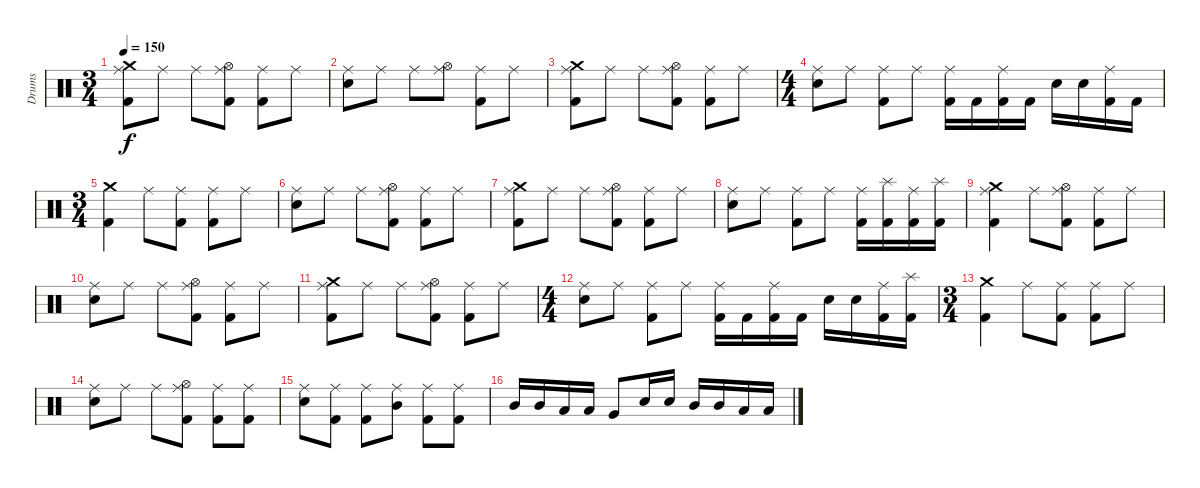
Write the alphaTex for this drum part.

\track ("Drums" "Drums") {instrument percussion}
\staff {score}
\articulation defaults
\ts (3 4)
\tempo 150
\clef neutral
\ks c
("Crash medium (hit)" "Ride (middle)" "Kick (hit) 2").8{dy f} "Ride (middle)".8 "Ride (middle)".8 ("Ride (middle)" "Hi-Hat (open)" "Kick (hit) 2").8 ("Ride (middle)" "Kick (hit) 2").8 "Ride (middle)".8 |
("Ride (middle)" "Snare (hit) 2").8 "Ride (middle)".8 "Ride (middle)".8 ("Ride (middle)" "Hi-Hat (open)").8 ("Ride (middle)" "Kick (hit) 2").8 "Ride (middle)".8 |
("Crash medium (hit)" "Ride (middle)" "Kick (hit) 2").8 "Ride (middle)".8 "Ride (middle)".8 ("Ride (middle)" "Hi-Hat (open)" "Kick (hit) 2").8 ("Ride (middle)" "Kick (hit) 2").8 "Ride (middle)".8 |
\ts (4 4)
("Ride (middle)" "Snare (hit) 2").8 "Ride (middle)".8 ("Ride (middle)" "Kick (hit) 2").8 "Ride (middle)".8 ("Ride (middle)" "Kick (hit) 2").16 "Kick (hit) 2".16 ("Ride (middle)" "Kick (hit) 2").16 "Kick (hit) 2".16 "Snare (hit) 2".16 "Snare (hit) 2".16 ("Ride (middle)" "Kick (hit) 2").16 "Kick (hit) 2".16 |
\ts (3 4)
("Crash medium (hit)" "Kick (hit) 2").4 "Ride (middle)".8 ("Ride (middle)" "Kick (hit) 2").8 ("Ride (middle)" "Kick (hit) 2").8 "Ride (middle)".8 |
("Ride (middle)" "Snare (hit) 2").8 "Ride (middle)".8 "Ride (middle)".8 ("Ride (middle)" "Hi-Hat (open)" "Kick (hit) 2").8 ("Ride (middle)" "Kick (hit) 2").8 "Ride (middle)".8 |
("Crash medium (hit)" "Ride (middle)" "Kick (hit) 2").8 "Ride (middle)".8 "Ride (middle)".8 ("Ride (middle)" "Hi-Hat (open)" "Kick (hit) 2").8 ("Ride (middle)" "Kick (hit) 2").8 "Ride (middle)".8 |
("Ride (middle)" "Snare (hit) 2").8 "Ride (middle)".8 ("Ride (middle)" "Kick (hit) 2").8 "Ride (middle)".8 ("Ride (middle)" "Kick (hit) 2").16 ("Splash (hit)" "Kick (hit) 2").16 ("Ride (middle)" "Kick (hit) 2").16 ("Splash (hit)" "Kick (hit) 2").16 |
("Crash medium (hit)" "Ride (middle)" "Kick (hit) 2").4 "Ride (middle)".8 ("Ride (middle)" "Hi-Hat (open)" "Kick (hit) 2").8 ("Ride (middle)" "Kick (hit) 2").8 "Ride (middle)".8 |
("Ride (middle)" "Snare (hit) 2").8 "Ride (middle)".8 "Ride (middle)".8 ("Ride (middle)" "Hi-Hat (open)" "Kick (hit) 2").8 ("Ride (middle)" "Kick (hit) 2").8 "Ride (middle)".8 |
("Crash medium (hit)" "Ride (middle)" "Kick (hit) 2").8 "Ride (middle)".8 "Ride (middle)".8 ("Ride (middle)" "Hi-Hat (open)" "Kick (hit) 2").8 ("Ride (middle)" "Kick (hit) 2").8 "Ride (middle)".8 |
\ts (4 4)
("Ride (middle)" "Snare (hit) 2").8 "Ride (middle)".8 ("Ride (middle)" "Kick (hit) 2").8 "Ride (middle)".8 ("Ride (middle)" "Kick (hit) 2").16 "Kick (hit) 2".16 ("Ride (middle)" "Kick (hit) 2").16 "Kick (hit) 2".16 "Snare (hit) 2".16 "Snare (hit) 2".16 ("Ride (middle)" "Kick (hit) 2").16 ("Splash (hit)" "Kick (hit) 2").16 |
\ts (3 4)
("Crash medium (hit)" "Kick (hit) 2").4 "Ride (middle)".8 ("Ride (middle)" "Kick (hit) 2").8 ("Ride (middle)" "Kick (hit) 2").8 "Ride (middle)".8 |
("Ride (middle)" "Snare (hit) 2").8 "Ride (middle)".8 "Ride (middle)".8 ("Ride (middle)" "Hi-Hat (open)" "Kick (hit) 2").8 ("Ride (middle)" "Kick (hit) 2").8 ("Ride (middle)" "Kick (hit) 2").8 |
("Ride (middle)" "Snare (hit) 2").8 ("Ride (middle)" "Kick (hit) 2").8 ("Ride (middle)" "Kick (hit) 2").8 ("Ride (middle)" "Mid Tom (hit)").8 ("Ride (middle)" "Kick (hit) 2").8 ("Ride (middle)" "Kick (hit) 2").8 |
"Mid Tom (hit)".16 "Mid Tom (hit)".16 "Low Tom (hit)".16 "Low Tom (hit)".16 "Very Low Tom (hit)".8 "Snare (hit) 2".16 "Snare (hit) 2".16 "Mid Tom (hit)".16 "Mid Tom (hit)".16 "Low Tom (hit)".16 "Low Tom (hit)".16
